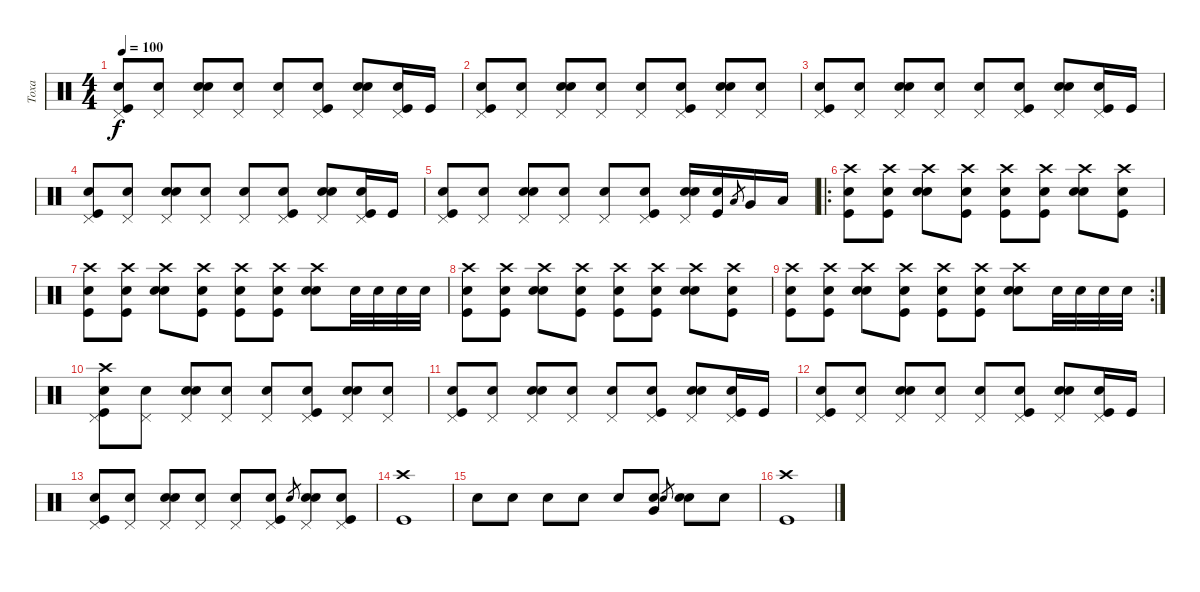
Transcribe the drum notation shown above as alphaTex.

\track ("Toxa" "Toxa") {instrument percussion}
\staff {score}
\articulation defaults
\ts (4 4)
\tempo 100
\clef neutral
\ks c
("Pedal Hi-Hat (hit)" "Kick (hit)" "Snare (hit)"{x}).8{dy f} ("Pedal Hi-Hat (hit)" "Snare (hit)"{x}).8 ("Pedal Hi-Hat (hit)" "Snare (hit) 2" "Snare (hit)"{x}).8 ("Pedal Hi-Hat (hit)" "Snare (hit)"{x}).8 ("Pedal Hi-Hat (hit)" "Snare (hit)"{x}).8 ("Pedal Hi-Hat (hit)" "Kick (hit)" "Snare (hit)"{x}).8 ("Pedal Hi-Hat (hit)" "Snare (hit) 2" "Snare (hit)"{x}).8 ("Pedal Hi-Hat (hit)" "Kick (hit)" "Snare (hit)"{x}).16 "Kick (hit)".16 |
("Pedal Hi-Hat (hit)" "Kick (hit)" "Snare (hit)"{x}).8 ("Pedal Hi-Hat (hit)" "Snare (hit)"{x}).8 ("Pedal Hi-Hat (hit)" "Snare (hit) 2" "Snare (hit)"{x}).8 ("Pedal Hi-Hat (hit)" "Snare (hit)"{x}).8 ("Pedal Hi-Hat (hit)" "Snare (hit)"{x}).8 ("Pedal Hi-Hat (hit)" "Kick (hit)" "Snare (hit)"{x}).8 ("Pedal Hi-Hat (hit)" "Snare (hit) 2" "Snare (hit)"{x}).8 ("Pedal Hi-Hat (hit)" "Snare (hit)"{x}).8 |
("Pedal Hi-Hat (hit)" "Kick (hit)" "Snare (hit)"{x}).8 ("Pedal Hi-Hat (hit)" "Snare (hit)"{x}).8 ("Pedal Hi-Hat (hit)" "Snare (hit) 2" "Snare (hit)"{x}).8 ("Pedal Hi-Hat (hit)" "Snare (hit)"{x}).8 ("Pedal Hi-Hat (hit)" "Snare (hit)"{x}).8 ("Pedal Hi-Hat (hit)" "Kick (hit)" "Snare (hit)"{x}).8 ("Pedal Hi-Hat (hit)" "Snare (hit) 2" "Snare (hit)"{x}).8 ("Pedal Hi-Hat (hit)" "Kick (hit)" "Snare (hit)"{x}).16 "Kick (hit)".16 |
("Pedal Hi-Hat (hit)" "Kick (hit)" "Snare (hit)"{x}).8 ("Pedal Hi-Hat (hit)" "Snare (hit)"{x}).8 ("Pedal Hi-Hat (hit)" "Snare (hit) 2" "Snare (hit)"{x}).8 ("Pedal Hi-Hat (hit)" "Snare (hit)"{x}).8 ("Pedal Hi-Hat (hit)" "Snare (hit)"{x}).8 ("Pedal Hi-Hat (hit)" "Kick (hit)" "Snare (hit)"{x}).8 ("Pedal Hi-Hat (hit)" "Snare (hit) 2" "Snare (hit)"{x}).8 ("Pedal Hi-Hat (hit)" "Kick (hit)" "Snare (hit)"{x}).16 "Kick (hit)".16 |
("Pedal Hi-Hat (hit)" "Kick (hit)" "Snare (hit)"{x}).8 ("Pedal Hi-Hat (hit)" "Snare (hit)"{x}).8 ("Pedal Hi-Hat (hit)" "Snare (hit) 2" "Snare (hit)"{x}).8 ("Pedal Hi-Hat (hit)" "Snare (hit)"{x}).8 ("Pedal Hi-Hat (hit)" "Snare (hit)"{x}).8 ("Pedal Hi-Hat (hit)" "Kick (hit)" "Snare (hit)"{x}).8 ("Pedal Hi-Hat (hit)" "Snare (hit) 2" "Snare (hit)"{x}).16 ("Kick (hit)" "Snare (hit)"{x}).16 "Low Tom (hit)".8{gr} "Very Low Tom (hit)".16 "Low Floor Tom (hit)".16 |
\ro
("Crash high (hit)" "Kick (hit)" "Snare (hit)"{x}).8 ("Crash high (hit)" "Kick (hit)" "Snare (hit)"{x}).8 ("Crash high (hit)" "Snare (hit) 2" "Snare (hit)"{x}).8 ("Crash high (hit)" "Kick (hit)" "Snare (hit)"{x}).8 ("Crash high (hit)" "Kick (hit)" "Snare (hit)"{x}).8 ("Crash high (hit)" "Kick (hit)" "Snare (hit)"{x}).8 ("Crash high (hit)" "Snare (hit) 2" "Snare (hit)"{x}).8 ("Crash high (hit)" "Kick (hit)" "Snare (hit)"{x}).8 |
("Crash high (hit)" "Kick (hit)" "Snare (hit)"{x}).8 ("Crash high (hit)" "Kick (hit)" "Snare (hit)"{x}).8 ("Crash high (hit)" "Snare (hit) 2" "Snare (hit)"{x}).8 ("Crash high (hit)" "Kick (hit)" "Snare (hit)"{x}).8 ("Crash high (hit)" "Kick (hit)" "Snare (hit)"{x}).8 ("Crash high (hit)" "Kick (hit)" "Snare (hit)"{x}).8 ("Crash high (hit)" "Snare (hit) 2" "Snare (hit)"{x}).8 "Electric Snare (hit)".32 "Electric Snare (hit)".32 "Electric Snare (hit)".32 "Electric Snare (hit)".32 |
("Crash high (hit)" "Kick (hit)" "Snare (hit)"{x}).8 ("Crash high (hit)" "Kick (hit)" "Snare (hit)"{x}).8 ("Crash high (hit)" "Snare (hit) 2" "Snare (hit)"{x}).8 ("Crash high (hit)" "Kick (hit)" "Snare (hit)"{x}).8 ("Crash high (hit)" "Kick (hit)" "Snare (hit)"{x}).8 ("Crash high (hit)" "Kick (hit)" "Snare (hit)"{x}).8 ("Crash high (hit)" "Snare (hit) 2" "Snare (hit)"{x}).8 ("Crash high (hit)" "Kick (hit)" "Snare (hit)"{x}).8 |
\rc 2
("Crash high (hit)" "Kick (hit)" "Snare (hit)"{x}).8 ("Crash high (hit)" "Kick (hit)" "Snare (hit)"{x}).8 ("Crash high (hit)" "Snare (hit) 2" "Snare (hit)"{x}).8 ("Crash high (hit)" "Kick (hit)" "Snare (hit)"{x}).8 ("Crash high (hit)" "Kick (hit)" "Snare (hit)"{x}).8 ("Crash high (hit)" "Kick (hit)" "Snare (hit)"{x}).8 ("Crash high (hit)" "Snare (hit) 2" "Snare (hit)"{x}).8 "Electric Snare (hit)".32 "Electric Snare (hit)".32 "Electric Snare (hit)".32 "Electric Snare (hit)".32 |
("Crash high (hit)" "Pedal Hi-Hat (hit)" "Kick (hit)" "Snare (hit)"{x}).8 ("Pedal Hi-Hat (hit)" "Snare (hit)"{x}).8 ("Pedal Hi-Hat (hit)" "Snare (hit) 2" "Snare (hit)"{x}).8 ("Pedal Hi-Hat (hit)" "Snare (hit)"{x}).8 ("Pedal Hi-Hat (hit)" "Snare (hit)"{x}).8 ("Pedal Hi-Hat (hit)" "Kick (hit)" "Snare (hit)"{x}).8 ("Pedal Hi-Hat (hit)" "Snare (hit) 2" "Snare (hit)"{x}).8 ("Pedal Hi-Hat (hit)" "Snare (hit)"{x}).8 |
("Pedal Hi-Hat (hit)" "Kick (hit)" "Snare (hit)"{x}).8 ("Pedal Hi-Hat (hit)" "Snare (hit)"{x}).8 ("Pedal Hi-Hat (hit)" "Snare (hit) 2" "Snare (hit)"{x}).8 ("Pedal Hi-Hat (hit)" "Snare (hit)"{x}).8 ("Pedal Hi-Hat (hit)" "Snare (hit)"{x}).8 ("Pedal Hi-Hat (hit)" "Kick (hit)" "Snare (hit)"{x}).8 ("Pedal Hi-Hat (hit)" "Snare (hit) 2" "Snare (hit)"{x}).8 ("Pedal Hi-Hat (hit)" "Kick (hit)" "Snare (hit)"{x}).16 "Kick (hit)".16 |
("Pedal Hi-Hat (hit)" "Kick (hit)" "Snare (hit)"{x}).8 ("Pedal Hi-Hat (hit)" "Snare (hit)"{x}).8 ("Pedal Hi-Hat (hit)" "Snare (hit) 2" "Snare (hit)"{x}).8 ("Pedal Hi-Hat (hit)" "Snare (hit)"{x}).8 ("Pedal Hi-Hat (hit)" "Snare (hit)"{x}).8 ("Pedal Hi-Hat (hit)" "Kick (hit)" "Snare (hit)"{x}).8 ("Pedal Hi-Hat (hit)" "Snare (hit) 2" "Snare (hit)"{x}).8 ("Pedal Hi-Hat (hit)" "Kick (hit)" "Snare (hit)"{x}).16 "Kick (hit)".16 |
("Pedal Hi-Hat (hit)" "Kick (hit)" "Snare (hit)"{x}).8 ("Pedal Hi-Hat (hit)" "Snare (hit)"{x}).8 ("Pedal Hi-Hat (hit)" "Snare (hit) 2" "Snare (hit)"{x}).8 ("Pedal Hi-Hat (hit)" "Snare (hit)"{x}).8 ("Pedal Hi-Hat (hit)" "Snare (hit)"{x}).8 ("Pedal Hi-Hat (hit)" "Kick (hit)" "Snare (hit)"{x}).8 "Electric Snare (hit)".8{gr} ("Pedal Hi-Hat (hit)" "Electric Snare (hit)" "Snare (hit)"{x}).8 ("Pedal Hi-Hat (hit)" "Kick (hit)" "Snare (hit)"{x}).8 |
("Crash high (hit)" "Kick (hit)").1 |
"Snare (hit)"{x}.8 "Snare (hit)"{x}.8 "Snare (hit)"{x}.8 "Snare (hit)"{x}.8 "Snare (hit)"{x}.8 ("Very Low Tom (hit)" "Snare (hit)"{x}).8 "Electric Snare (hit)".8{gr} ("Electric Snare (hit)" "Snare (hit)"{x}).8 "Snare (hit)"{x}.8 |
("Crash high (hit)" "Kick (hit)").1
